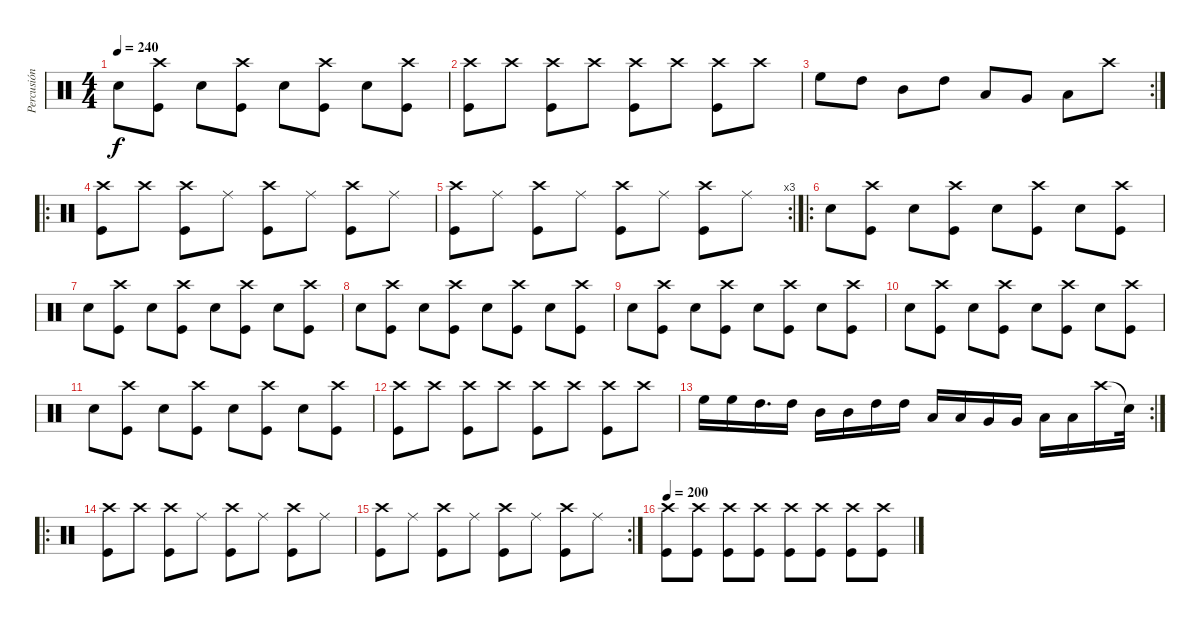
\track ("Percusión" "Percusión") {instrument percussion}
\staff {score}
\articulation defaults
\ts (4 4)
\tempo 240
\clef neutral
\ks c "Electric Snare (hit)".8{dy f}
("Crash high (hit)" "Kick (hit)").8 "Electric Snare (hit)".8 ("Crash high (hit)" "Kick (hit)").8 "Electric Snare (hit)".8 ("Crash high (hit)" "Kick (hit)").8 "Electric Snare (hit)".8 ("Crash high (hit)" "Kick (hit)").8 |
("Crash high (hit)" "Kick (hit)").8 "Crash high (hit)".8 ("Crash high (hit)" "Kick (hit)").8 "Crash high (hit)".8 ("Crash high (hit)" "Kick (hit)").8 "Crash high (hit)".8 ("Crash high (hit)" "Kick (hit)").8 "Crash high (hit)".8 |
\rc 2 "High Floor Tom (hit)".8 "High Tom (hit)".8 "Mid Tom (hit)".8 "High Tom (hit)".8 "Low Tom (hit)".8 "Very Low Tom (hit)".8 "Low Tom (hit)".8 "Crash high (hit)".8
|
\ro
("Crash high (hit)" "Kick (hit)").8 "Crash high (hit)".8 ("Crash high (hit)" "Kick (hit)").8 "Ride (middle)".8 ("Crash high (hit)" "Kick (hit)").8 "Ride (middle)".8 ("Crash high (hit)" "Kick (hit)").8 "Ride (middle)".8 |
\rc 3
("Crash high (hit)" "Kick (hit)").8 "Ride (middle)".8 ("Crash high (hit)" "Kick (hit)").8 "Ride (middle)".8 ("Crash high (hit)" "Kick (hit)").8 "Ride (middle)".8 ("Crash high (hit)" "Kick (hit)").8 "Ride (middle)".8 |
\ro "Electric Snare (hit)".8
("Crash high (hit)" "Kick (hit)").8 "Electric Snare (hit)".8 ("Crash high (hit)" "Kick (hit)").8 "Electric Snare (hit)".8 ("Crash high (hit)" "Kick (hit)").8 "Electric Snare (hit)".8 ("Crash high (hit)" "Kick (hit)").8 |
"Electric Snare (hit)".8 ("Crash high (hit)" "Kick (hit)").8 "Electric Snare (hit)".8 ("Crash high (hit)" "Kick (hit)").8 "Electric Snare (hit)".8 ("Crash high (hit)" "Kick (hit)").8 "Electric Snare (hit)".8 ("Crash high (hit)" "Kick (hit)").8 |
"Electric Snare (hit)".8 ("Crash high (hit)" "Kick (hit)").8 "Electric Snare (hit)".8 ("Crash high (hit)" "Kick (hit)").8 "Electric Snare (hit)".8 ("Crash high (hit)" "Kick (hit)").8 "Electric Snare (hit)".8 ("Crash high (hit)" "Kick (hit)").8 |
"Electric Snare (hit)".8 ("Crash high (hit)" "Kick (hit)").8 "Electric Snare (hit)".8 ("Crash high (hit)" "Kick (hit)").8 "Electric Snare (hit)".8 ("Crash high (hit)" "Kick (hit)").8 "Electric Snare (hit)".8 ("Crash high (hit)" "Kick (hit)").8 |
"Electric Snare (hit)".8 ("Crash high (hit)" "Kick (hit)").8 "Electric Snare (hit)".8 ("Crash high (hit)" "Kick (hit)").8 "Electric Snare (hit)".8 ("Crash high (hit)" "Kick (hit)").8 "Electric Snare (hit)".8 ("Crash high (hit)" "Kick (hit)").8 |
"Electric Snare (hit)".8 ("Crash high (hit)" "Kick (hit)").8 "Electric Snare (hit)".8 ("Crash high (hit)" "Kick (hit)").8 "Electric Snare (hit)".8 ("Crash high (hit)" "Kick (hit)").8 "Electric Snare (hit)".8 ("Crash high (hit)" "Kick (hit)").8 |
("Crash high (hit)" "Kick (hit)").8 "Crash high (hit)".8 ("Crash high (hit)" "Kick (hit)").8 "Crash high (hit)".8 ("Crash high (hit)" "Kick (hit)").8 "Crash high (hit)".8 ("Crash high (hit)" "Kick (hit)").8 "Crash high (hit)".8 |
\rc 2 "High Floor Tom (hit)".16 "High Floor Tom (hit)".16 "High Tom (hit)".16{d} "High Tom (hit)".16 "Mid Tom (hit)".16 "Mid Tom (hit)".16 "High Tom (hit)".16 "High Tom (hit)".16 "Low Tom (hit)".16 "Low Tom (hit)".16 "Very Low Tom (hit)".16 "Very Low Tom (hit)".16 "Low Tom (hit)".16 "Low Tom (hit)".16 "Crash high (hit)".16 "Snare (hit)"{t}.32
|
\ro
("Crash high (hit)" "Kick (hit)").8 "Crash high (hit)".8 ("Crash high (hit)" "Kick (hit)").8 "Ride (middle)".8 ("Crash high (hit)" "Kick (hit)").8 "Ride (middle)".8 ("Crash high (hit)" "Kick (hit)").8 "Ride (middle)".8 |
\rc 2
("Crash high (hit)" "Kick (hit)").8 "Ride (middle)".8 ("Crash high (hit)" "Kick (hit)").8 "Ride (middle)".8 ("Crash high (hit)" "Kick (hit)").8 "Ride (middle)".8 ("Crash high (hit)" "Kick (hit)").8 "Ride (middle)".8 |
\tempo 200
("Crash high (hit)" "Kick (hit)").8 ("Crash high (hit)" "Kick (hit)").8 ("Crash high (hit)" "Kick (hit)").8 ("Crash high (hit)" "Kick (hit)").8 ("Crash high (hit)" "Kick (hit)").8 ("Crash high (hit)" "Kick (hit)").8 ("Crash high (hit)" "Kick (hit)").8 ("Crash high (hit)" "Kick (hit)").8
